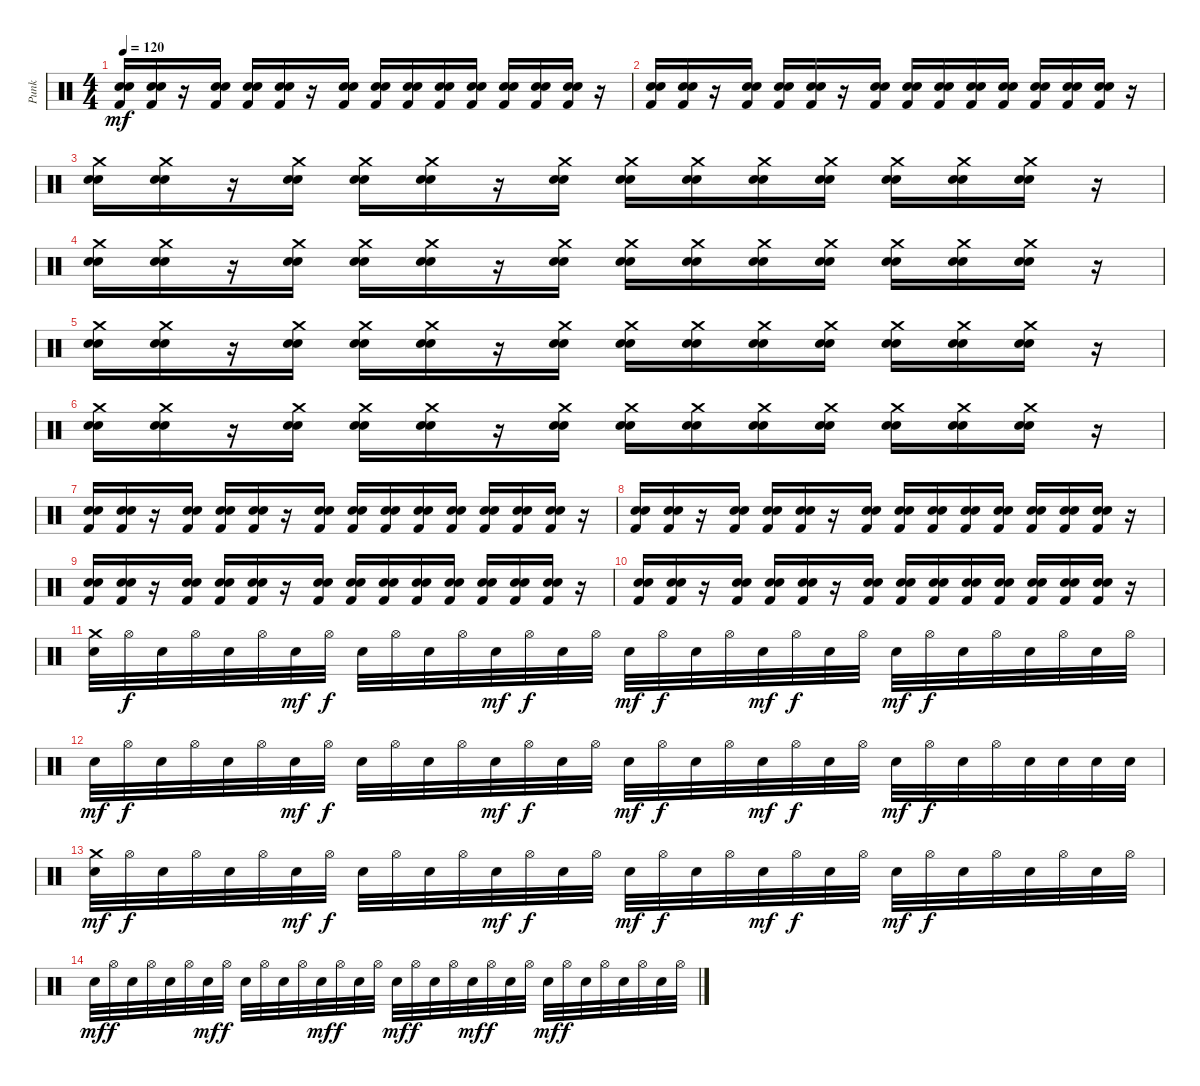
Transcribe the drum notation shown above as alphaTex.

\track ("Punk" "Punk") {instrument percussion}
\staff {score}
\articulation defaults
\ts (4 4)
\tempo 120
\clef neutral
\ks c
("Kick (hit) 2" "Electric Snare (hit)" "Snare (hit) 2").16{dy mf} ("Kick (hit) 2" "Electric Snare (hit)" "Snare (hit) 2").16 r.16 ("Kick (hit) 2" "Electric Snare (hit)" "Snare (hit) 2").16 ("Kick (hit) 2" "Electric Snare (hit)" "Snare (hit) 2").16 ("Kick (hit) 2" "Electric Snare (hit)" "Snare (hit) 2").16 r.16 ("Kick (hit) 2" "Electric Snare (hit)" "Snare (hit) 2").16 ("Kick (hit) 2" "Electric Snare (hit)" "Snare (hit) 2").16 ("Kick (hit) 2" "Electric Snare (hit)" "Snare (hit) 2").16 ("Kick (hit) 2" "Electric Snare (hit)" "Snare (hit) 2").16 ("Kick (hit) 2" "Electric Snare (hit)" "Snare (hit) 2").16 ("Kick (hit) 2" "Electric Snare (hit)" "Snare (hit) 2").16 ("Kick (hit) 2" "Electric Snare (hit)" "Snare (hit) 2").16 ("Kick (hit) 2" "Electric Snare (hit)" "Snare (hit) 2").16 r.16 |
("Kick (hit) 2" "Electric Snare (hit)" "Snare (hit) 2").16 ("Kick (hit) 2" "Electric Snare (hit)" "Snare (hit) 2").16 r.16 ("Kick (hit) 2" "Electric Snare (hit)" "Snare (hit) 2").16 ("Kick (hit) 2" "Electric Snare (hit)" "Snare (hit) 2").16 ("Kick (hit) 2" "Electric Snare (hit)" "Snare (hit) 2").16 r.16 ("Kick (hit) 2" "Electric Snare (hit)" "Snare (hit) 2").16 ("Kick (hit) 2" "Electric Snare (hit)" "Snare (hit) 2").16 ("Kick (hit) 2" "Electric Snare (hit)" "Snare (hit) 2").16 ("Kick (hit) 2" "Electric Snare (hit)" "Snare (hit) 2").16 ("Kick (hit) 2" "Electric Snare (hit)" "Snare (hit) 2").16 ("Kick (hit) 2" "Electric Snare (hit)" "Snare (hit) 2").16 ("Kick (hit) 2" "Electric Snare (hit)" "Snare (hit) 2").16 ("Kick (hit) 2" "Electric Snare (hit)" "Snare (hit) 2").16 r.16 |
("Crash medium (hit)" "Electric Snare (hit)" "Snare (hit) 2").16 ("Crash medium (hit)" "Electric Snare (hit)" "Snare (hit) 2").16 r.16 ("Crash medium (hit)" "Electric Snare (hit)" "Snare (hit) 2").16 ("Crash medium (hit)" "Electric Snare (hit)" "Snare (hit) 2").16 ("Crash medium (hit)" "Electric Snare (hit)" "Snare (hit) 2").16 r.16 ("Crash medium (hit)" "Electric Snare (hit)" "Snare (hit) 2").16 ("Crash medium (hit)" "Electric Snare (hit)" "Snare (hit) 2").16 ("Crash medium (hit)" "Electric Snare (hit)" "Snare (hit) 2").16 ("Crash medium (hit)" "Electric Snare (hit)" "Snare (hit) 2").16 ("Crash medium (hit)" "Electric Snare (hit)" "Snare (hit) 2").16 ("Crash medium (hit)" "Electric Snare (hit)" "Snare (hit) 2").16 ("Crash medium (hit)" "Electric Snare (hit)" "Snare (hit) 2").16 ("Crash medium (hit)" "Electric Snare (hit)" "Snare (hit) 2").16 r.16 |
("Crash medium (hit)" "Electric Snare (hit)" "Snare (hit) 2").16 ("Crash medium (hit)" "Electric Snare (hit)" "Snare (hit) 2").16 r.16 ("Crash medium (hit)" "Electric Snare (hit)" "Snare (hit) 2").16 ("Crash medium (hit)" "Electric Snare (hit)" "Snare (hit) 2").16 ("Crash medium (hit)" "Electric Snare (hit)" "Snare (hit) 2").16 r.16 ("Crash medium (hit)" "Electric Snare (hit)" "Snare (hit) 2").16 ("Crash medium (hit)" "Electric Snare (hit)" "Snare (hit) 2").16 ("Crash medium (hit)" "Electric Snare (hit)" "Snare (hit) 2").16 ("Crash medium (hit)" "Electric Snare (hit)" "Snare (hit) 2").16 ("Crash medium (hit)" "Electric Snare (hit)" "Snare (hit) 2").16 ("Crash medium (hit)" "Electric Snare (hit)" "Snare (hit) 2").16 ("Crash medium (hit)" "Electric Snare (hit)" "Snare (hit) 2").16 ("Crash medium (hit)" "Electric Snare (hit)" "Snare (hit) 2").16 r.16 |
("Crash medium (hit)" "Electric Snare (hit)" "Snare (hit) 2").16 ("Crash medium (hit)" "Electric Snare (hit)" "Snare (hit) 2").16 r.16 ("Crash medium (hit)" "Electric Snare (hit)" "Snare (hit) 2").16 ("Crash medium (hit)" "Electric Snare (hit)" "Snare (hit) 2").16 ("Crash medium (hit)" "Electric Snare (hit)" "Snare (hit) 2").16 r.16 ("Crash medium (hit)" "Electric Snare (hit)" "Snare (hit) 2").16 ("Crash medium (hit)" "Electric Snare (hit)" "Snare (hit) 2").16 ("Crash medium (hit)" "Electric Snare (hit)" "Snare (hit) 2").16 ("Crash medium (hit)" "Electric Snare (hit)" "Snare (hit) 2").16 ("Crash medium (hit)" "Electric Snare (hit)" "Snare (hit) 2").16 ("Crash medium (hit)" "Electric Snare (hit)" "Snare (hit) 2").16 ("Crash medium (hit)" "Electric Snare (hit)" "Snare (hit) 2").16 ("Crash medium (hit)" "Electric Snare (hit)" "Snare (hit) 2").16 r.16 |
("Crash medium (hit)" "Electric Snare (hit)" "Snare (hit) 2").16 ("Crash medium (hit)" "Electric Snare (hit)" "Snare (hit) 2").16 r.16 ("Crash medium (hit)" "Electric Snare (hit)" "Snare (hit) 2").16 ("Crash medium (hit)" "Electric Snare (hit)" "Snare (hit) 2").16 ("Crash medium (hit)" "Electric Snare (hit)" "Snare (hit) 2").16 r.16 ("Crash medium (hit)" "Electric Snare (hit)" "Snare (hit) 2").16 ("Crash medium (hit)" "Electric Snare (hit)" "Snare (hit) 2").16 ("Crash medium (hit)" "Electric Snare (hit)" "Snare (hit) 2").16 ("Crash medium (hit)" "Electric Snare (hit)" "Snare (hit) 2").16 ("Crash medium (hit)" "Electric Snare (hit)" "Snare (hit) 2").16 ("Crash medium (hit)" "Electric Snare (hit)" "Snare (hit) 2").16 ("Crash medium (hit)" "Electric Snare (hit)" "Snare (hit) 2").16 ("Crash medium (hit)" "Electric Snare (hit)" "Snare (hit) 2").16 r.16 |
("Kick (hit) 2" "Electric Snare (hit)" "Snare (hit) 2").16 ("Kick (hit) 2" "Electric Snare (hit)" "Snare (hit) 2").16 r.16 ("Kick (hit) 2" "Electric Snare (hit)" "Snare (hit) 2").16 ("Kick (hit) 2" "Electric Snare (hit)" "Snare (hit) 2").16 ("Kick (hit) 2" "Electric Snare (hit)" "Snare (hit) 2").16 r.16 ("Kick (hit) 2" "Electric Snare (hit)" "Snare (hit) 2").16 ("Kick (hit) 2" "Electric Snare (hit)" "Snare (hit) 2").16 ("Kick (hit) 2" "Electric Snare (hit)" "Snare (hit) 2").16 ("Kick (hit) 2" "Electric Snare (hit)" "Snare (hit) 2").16 ("Kick (hit) 2" "Electric Snare (hit)" "Snare (hit) 2").16 ("Kick (hit) 2" "Electric Snare (hit)" "Snare (hit) 2").16 ("Kick (hit) 2" "Electric Snare (hit)" "Snare (hit) 2").16 ("Kick (hit) 2" "Electric Snare (hit)" "Snare (hit) 2").16 r.16 |
("Kick (hit) 2" "Electric Snare (hit)" "Snare (hit) 2").16 ("Kick (hit) 2" "Electric Snare (hit)" "Snare (hit) 2").16 r.16 ("Kick (hit) 2" "Electric Snare (hit)" "Snare (hit) 2").16 ("Kick (hit) 2" "Electric Snare (hit)" "Snare (hit) 2").16 ("Kick (hit) 2" "Electric Snare (hit)" "Snare (hit) 2").16 r.16 ("Kick (hit) 2" "Electric Snare (hit)" "Snare (hit) 2").16 ("Kick (hit) 2" "Electric Snare (hit)" "Snare (hit) 2").16 ("Kick (hit) 2" "Electric Snare (hit)" "Snare (hit) 2").16 ("Kick (hit) 2" "Electric Snare (hit)" "Snare (hit) 2").16 ("Kick (hit) 2" "Electric Snare (hit)" "Snare (hit) 2").16 ("Kick (hit) 2" "Electric Snare (hit)" "Snare (hit) 2").16 ("Kick (hit) 2" "Electric Snare (hit)" "Snare (hit) 2").16 ("Kick (hit) 2" "Electric Snare (hit)" "Snare (hit) 2").16 r.16 |
("Kick (hit) 2" "Electric Snare (hit)" "Snare (hit) 2").16 ("Kick (hit) 2" "Electric Snare (hit)" "Snare (hit) 2").16 r.16 ("Kick (hit) 2" "Electric Snare (hit)" "Snare (hit) 2").16 ("Kick (hit) 2" "Electric Snare (hit)" "Snare (hit) 2").16 ("Kick (hit) 2" "Electric Snare (hit)" "Snare (hit) 2").16 r.16 ("Kick (hit) 2" "Electric Snare (hit)" "Snare (hit) 2").16 ("Kick (hit) 2" "Electric Snare (hit)" "Snare (hit) 2").16 ("Kick (hit) 2" "Electric Snare (hit)" "Snare (hit) 2").16 ("Kick (hit) 2" "Electric Snare (hit)" "Snare (hit) 2").16 ("Kick (hit) 2" "Electric Snare (hit)" "Snare (hit) 2").16 ("Kick (hit) 2" "Electric Snare (hit)" "Snare (hit) 2").16 ("Kick (hit) 2" "Electric Snare (hit)" "Snare (hit) 2").16 ("Kick (hit) 2" "Electric Snare (hit)" "Snare (hit) 2").16 r.16 |
("Kick (hit) 2" "Electric Snare (hit)" "Snare (hit) 2").16 ("Kick (hit) 2" "Electric Snare (hit)" "Snare (hit) 2").16 r.16 ("Kick (hit) 2" "Electric Snare (hit)" "Snare (hit) 2").16 ("Kick (hit) 2" "Electric Snare (hit)" "Snare (hit) 2").16 ("Kick (hit) 2" "Electric Snare (hit)" "Snare (hit) 2").16 r.16 ("Kick (hit) 2" "Electric Snare (hit)" "Snare (hit) 2").16 ("Kick (hit) 2" "Electric Snare (hit)" "Snare (hit) 2").16 ("Kick (hit) 2" "Electric Snare (hit)" "Snare (hit) 2").16 ("Kick (hit) 2" "Electric Snare (hit)" "Snare (hit) 2").16 ("Kick (hit) 2" "Electric Snare (hit)" "Snare (hit) 2").16 ("Kick (hit) 2" "Electric Snare (hit)" "Snare (hit) 2").16 ("Kick (hit) 2" "Electric Snare (hit)" "Snare (hit) 2").16 ("Kick (hit) 2" "Electric Snare (hit)" "Snare (hit) 2").16 r.16 |
("Crash medium (hit)" "Electric Snare (hit)").32 "Hi-Hat (open)".32{dy f} "Electric Snare (hit)".32 "Hi-Hat (open)".32 "Electric Snare (hit)".32 "Hi-Hat (open)".32 "Electric Snare (hit)".32{dy mf} "Hi-Hat (open)".32{dy f} "Electric Snare (hit)".32 "Hi-Hat (open)".32 "Electric Snare (hit)".32 "Hi-Hat (open)".32 "Electric Snare (hit)".32{dy mf} "Hi-Hat (open)".32{dy f} "Electric Snare (hit)".32 "Hi-Hat (open)".32 "Electric Snare (hit)".32{dy mf} "Hi-Hat (open)".32{dy f} "Electric Snare (hit)".32 "Hi-Hat (open)".32 "Electric Snare (hit)".32{dy mf} "Hi-Hat (open)".32{dy f} "Electric Snare (hit)".32 "Hi-Hat (open)".32 "Electric Snare (hit)".32{dy mf} "Hi-Hat (open)".32{dy f} "Electric Snare (hit)".32 "Hi-Hat (open)".32 "Electric Snare (hit)".32 "Hi-Hat (open)".32 "Electric Snare (hit)".32 "Hi-Hat (open)".32 |
"Electric Snare (hit)".32{dy mf} "Hi-Hat (open)".32{dy f} "Electric Snare (hit)".32 "Hi-Hat (open)".32 "Electric Snare (hit)".32 "Hi-Hat (open)".32 "Electric Snare (hit)".32{dy mf} "Hi-Hat (open)".32{dy f} "Electric Snare (hit)".32 "Hi-Hat (open)".32 "Electric Snare (hit)".32 "Hi-Hat (open)".32 "Electric Snare (hit)".32{dy mf} "Hi-Hat (open)".32{dy f} "Electric Snare (hit)".32 "Hi-Hat (open)".32 "Electric Snare (hit)".32{dy mf} "Hi-Hat (open)".32{dy f} "Electric Snare (hit)".32 "Hi-Hat (open)".32 "Electric Snare (hit)".32{dy mf} "Hi-Hat (open)".32{dy f} "Electric Snare (hit)".32 "Hi-Hat (open)".32 "Electric Snare (hit)".32{dy mf} "Hi-Hat (open)".32{dy f} "Electric Snare (hit)".32 "Hi-Hat (open)".32 "Electric Snare (hit)".32 "Electric Snare (hit)".32 "Electric Snare (hit)".32 "Electric Snare (hit)".32 |
("Crash medium (hit)" "Electric Snare (hit)").32{dy mf} "Hi-Hat (open)".32{dy f} "Electric Snare (hit)".32 "Hi-Hat (open)".32 "Electric Snare (hit)".32 "Hi-Hat (open)".32 "Electric Snare (hit)".32{dy mf} "Hi-Hat (open)".32{dy f} "Electric Snare (hit)".32 "Hi-Hat (open)".32 "Electric Snare (hit)".32 "Hi-Hat (open)".32 "Electric Snare (hit)".32{dy mf} "Hi-Hat (open)".32{dy f} "Electric Snare (hit)".32 "Hi-Hat (open)".32 "Electric Snare (hit)".32{dy mf} "Hi-Hat (open)".32{dy f} "Electric Snare (hit)".32 "Hi-Hat (open)".32 "Electric Snare (hit)".32{dy mf} "Hi-Hat (open)".32{dy f} "Electric Snare (hit)".32 "Hi-Hat (open)".32 "Electric Snare (hit)".32{dy mf} "Hi-Hat (open)".32{dy f} "Electric Snare (hit)".32 "Hi-Hat (open)".32 "Electric Snare (hit)".32 "Hi-Hat (open)".32 "Electric Snare (hit)".32 "Hi-Hat (open)".32 |
"Electric Snare (hit)".32{dy mf} "Hi-Hat (open)".32{dy f} "Electric Snare (hit)".32 "Hi-Hat (open)".32 "Electric Snare (hit)".32 "Hi-Hat (open)".32 "Electric Snare (hit)".32{dy mf} "Hi-Hat (open)".32{dy f} "Electric Snare (hit)".32 "Hi-Hat (open)".32 "Electric Snare (hit)".32 "Hi-Hat (open)".32 "Electric Snare (hit)".32{dy mf} "Hi-Hat (open)".32{dy f} "Electric Snare (hit)".32 "Hi-Hat (open)".32 "Electric Snare (hit)".32{dy mf} "Hi-Hat (open)".32{dy f} "Electric Snare (hit)".32 "Hi-Hat (open)".32 "Electric Snare (hit)".32{dy mf} "Hi-Hat (open)".32{dy f} "Electric Snare (hit)".32 "Hi-Hat (open)".32 "Electric Snare (hit)".32{dy mf} "Hi-Hat (open)".32{dy f} "Electric Snare (hit)".32 "Hi-Hat (open)".32 "Electric Snare (hit)".32 "Hi-Hat (open)".32 "Electric Snare (hit)".32 "Hi-Hat (open)".32
